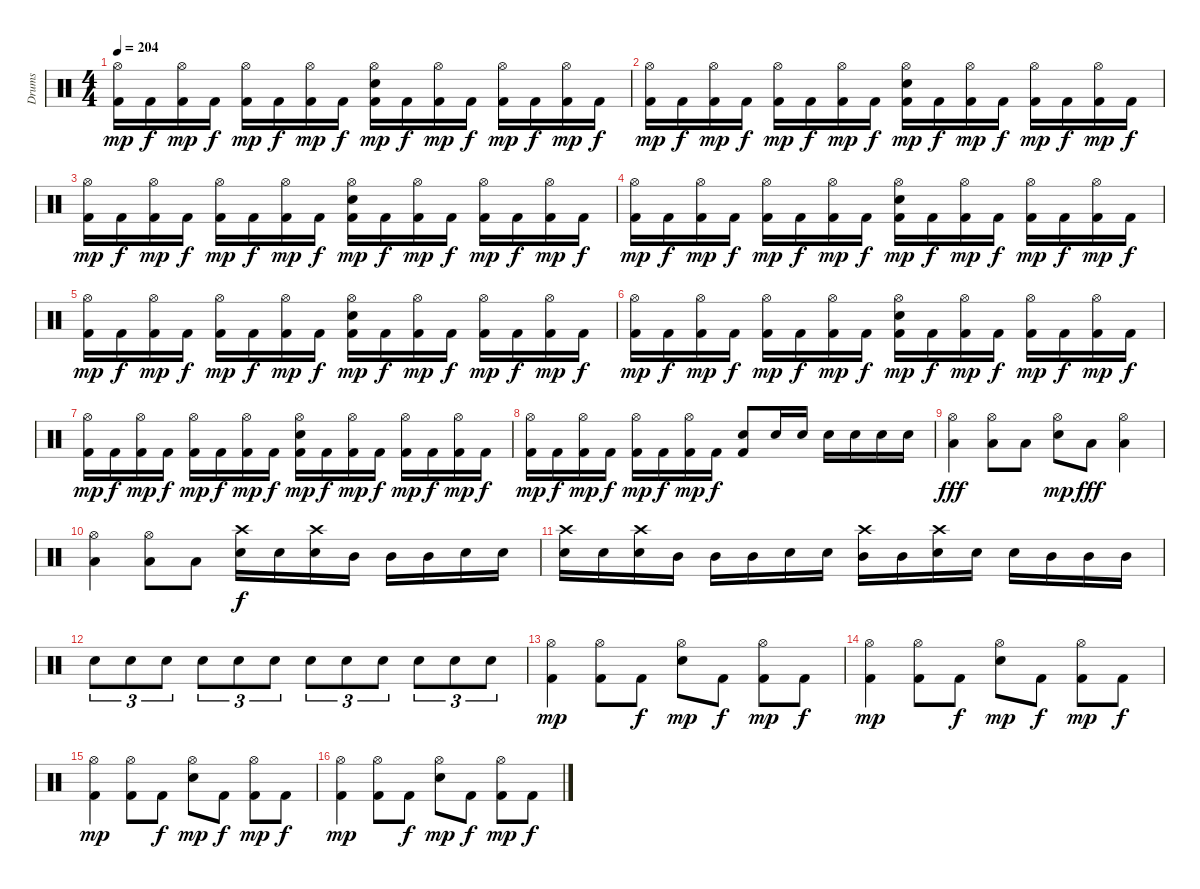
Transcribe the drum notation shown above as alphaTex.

\track ("Drums" "Drums") {instrument percussion}
\staff {score}
\articulation defaults
\ts (4 4)
\tempo 204
\clef neutral
\ks c
("Hi-Hat (open)" "Kick (hit) 2").16{dy mp} "Kick (hit) 2".16{dy f} ("Hi-Hat (open)" "Kick (hit) 2").16{dy mp} "Kick (hit) 2".16{dy f} ("Hi-Hat (open)" "Kick (hit) 2").16{dy mp} "Kick (hit) 2".16{dy f} ("Hi-Hat (open)" "Kick (hit) 2").16{dy mp} "Kick (hit) 2".16{dy f} ("Hi-Hat (open)" "Electric Snare (hit)" "Kick (hit) 2").16{dy mp} "Kick (hit) 2".16{dy f} ("Hi-Hat (open)" "Kick (hit) 2").16{dy mp} "Kick (hit) 2".16{dy f} ("Hi-Hat (open)" "Kick (hit) 2").16{dy mp} "Kick (hit) 2".16{dy f} ("Hi-Hat (open)" "Kick (hit) 2").16{dy mp} "Kick (hit) 2".16{dy f} |
("Hi-Hat (open)" "Kick (hit) 2").16{dy mp} "Kick (hit) 2".16{dy f} ("Hi-Hat (open)" "Kick (hit) 2").16{dy mp} "Kick (hit) 2".16{dy f} ("Hi-Hat (open)" "Kick (hit) 2").16{dy mp} "Kick (hit) 2".16{dy f} ("Hi-Hat (open)" "Kick (hit) 2").16{dy mp} "Kick (hit) 2".16{dy f} ("Hi-Hat (open)" "Electric Snare (hit)" "Kick (hit) 2").16{dy mp} "Kick (hit) 2".16{dy f} ("Hi-Hat (open)" "Kick (hit) 2").16{dy mp} "Kick (hit) 2".16{dy f} ("Hi-Hat (open)" "Kick (hit) 2").16{dy mp} "Kick (hit) 2".16{dy f} ("Hi-Hat (open)" "Kick (hit) 2").16{dy mp} "Kick (hit) 2".16{dy f} |
("Hi-Hat (open)" "Kick (hit) 2").16{dy mp} "Kick (hit) 2".16{dy f} ("Hi-Hat (open)" "Kick (hit) 2").16{dy mp} "Kick (hit) 2".16{dy f} ("Hi-Hat (open)" "Kick (hit) 2").16{dy mp} "Kick (hit) 2".16{dy f} ("Hi-Hat (open)" "Kick (hit) 2").16{dy mp} "Kick (hit) 2".16{dy f} ("Hi-Hat (open)" "Electric Snare (hit)" "Kick (hit) 2").16{dy mp} "Kick (hit) 2".16{dy f} ("Hi-Hat (open)" "Kick (hit) 2").16{dy mp} "Kick (hit) 2".16{dy f} ("Hi-Hat (open)" "Kick (hit) 2").16{dy mp} "Kick (hit) 2".16{dy f} ("Hi-Hat (open)" "Kick (hit) 2").16{dy mp} "Kick (hit) 2".16{dy f} |
("Hi-Hat (open)" "Kick (hit) 2").16{dy mp} "Kick (hit) 2".16{dy f} ("Hi-Hat (open)" "Kick (hit) 2").16{dy mp} "Kick (hit) 2".16{dy f} ("Hi-Hat (open)" "Kick (hit) 2").16{dy mp} "Kick (hit) 2".16{dy f} ("Hi-Hat (open)" "Kick (hit) 2").16{dy mp} "Kick (hit) 2".16{dy f} ("Hi-Hat (open)" "Electric Snare (hit)" "Kick (hit) 2").16{dy mp} "Kick (hit) 2".16{dy f} ("Hi-Hat (open)" "Kick (hit) 2").16{dy mp} "Kick (hit) 2".16{dy f} ("Hi-Hat (open)" "Kick (hit) 2").16{dy mp} "Kick (hit) 2".16{dy f} ("Hi-Hat (open)" "Kick (hit) 2").16{dy mp} "Kick (hit) 2".16{dy f} |
("Hi-Hat (open)" "Kick (hit) 2").16{dy mp} "Kick (hit) 2".16{dy f} ("Hi-Hat (open)" "Kick (hit) 2").16{dy mp} "Kick (hit) 2".16{dy f} ("Hi-Hat (open)" "Kick (hit) 2").16{dy mp} "Kick (hit) 2".16{dy f} ("Hi-Hat (open)" "Kick (hit) 2").16{dy mp} "Kick (hit) 2".16{dy f} ("Hi-Hat (open)" "Electric Snare (hit)" "Kick (hit) 2").16{dy mp} "Kick (hit) 2".16{dy f} ("Hi-Hat (open)" "Kick (hit) 2").16{dy mp} "Kick (hit) 2".16{dy f} ("Hi-Hat (open)" "Kick (hit) 2").16{dy mp} "Kick (hit) 2".16{dy f} ("Hi-Hat (open)" "Kick (hit) 2").16{dy mp} "Kick (hit) 2".16{dy f} |
("Hi-Hat (open)" "Kick (hit) 2").16{dy mp} "Kick (hit) 2".16{dy f} ("Hi-Hat (open)" "Kick (hit) 2").16{dy mp} "Kick (hit) 2".16{dy f} ("Hi-Hat (open)" "Kick (hit) 2").16{dy mp} "Kick (hit) 2".16{dy f} ("Hi-Hat (open)" "Kick (hit) 2").16{dy mp} "Kick (hit) 2".16{dy f} ("Hi-Hat (open)" "Electric Snare (hit)" "Kick (hit) 2").16{dy mp} "Kick (hit) 2".16{dy f} ("Hi-Hat (open)" "Kick (hit) 2").16{dy mp} "Kick (hit) 2".16{dy f} ("Hi-Hat (open)" "Kick (hit) 2").16{dy mp} "Kick (hit) 2".16{dy f} ("Hi-Hat (open)" "Kick (hit) 2").16{dy mp} "Kick (hit) 2".16{dy f} |
("Hi-Hat (open)" "Kick (hit) 2").16{dy mp} "Kick (hit) 2".16{dy f} ("Hi-Hat (open)" "Kick (hit) 2").16{dy mp} "Kick (hit) 2".16{dy f} ("Hi-Hat (open)" "Kick (hit) 2").16{dy mp} "Kick (hit) 2".16{dy f} ("Hi-Hat (open)" "Kick (hit) 2").16{dy mp} "Kick (hit) 2".16{dy f} ("Hi-Hat (open)" "Electric Snare (hit)" "Kick (hit) 2").16{dy mp} "Kick (hit) 2".16{dy f} ("Hi-Hat (open)" "Kick (hit) 2").16{dy mp} "Kick (hit) 2".16{dy f} ("Hi-Hat (open)" "Kick (hit) 2").16{dy mp} "Kick (hit) 2".16{dy f} ("Hi-Hat (open)" "Kick (hit) 2").16{dy mp} "Kick (hit) 2".16{dy f} |
("Hi-Hat (open)" "Kick (hit) 2").16{dy mp} "Kick (hit) 2".16{dy f} ("Hi-Hat (open)" "Kick (hit) 2").16{dy mp} "Kick (hit) 2".16{dy f} ("Hi-Hat (open)" "Kick (hit) 2").16{dy mp} "Kick (hit) 2".16{dy f} ("Hi-Hat (open)" "Kick (hit) 2").16{dy mp} "Kick (hit) 2".16{dy f} ("Electric Snare (hit)" "Kick (hit) 2").8 "Electric Snare (hit)".16 "Electric Snare (hit)".16 "Electric Snare (hit)".16 "Electric Snare (hit)".16 "Electric Snare (hit)".16 "Electric Snare (hit)".16 |
("Hi-Hat (open)" "Low Floor Tom (hit)").4{dy fff} ("Hi-Hat (open)" "Low Floor Tom (hit)").8 "Low Floor Tom (hit)".8 ("Hi-Hat (open)" "Electric Snare (hit)").8{dy mp} "Low Floor Tom (hit)".8{dy fff} ("Hi-Hat (open)" "Low Floor Tom (hit)").4 |
("Hi-Hat (open)" "Low Floor Tom (hit)").4 ("Hi-Hat (open)" "Low Floor Tom (hit)").8 "Low Floor Tom (hit)".8 ("Crash high (hit)" "Electric Snare (hit)").16{dy f} "Electric Snare (hit)".16 ("Crash high (hit)" "Electric Snare (hit)").16 "Mid Tom (hit)".16 "Mid Tom (hit)".16 "Mid Tom (hit)".16 "Electric Snare (hit)".16 "Electric Snare (hit)".16 |
("Crash high (hit)" "Electric Snare (hit)").16 "Electric Snare (hit)".16 ("Crash high (hit)" "Electric Snare (hit)").16 "Mid Tom (hit)".16 "Mid Tom (hit)".16 "Mid Tom (hit)".16 "Electric Snare (hit)".16 "Electric Snare (hit)".16 ("Crash high (hit)" "Mid Tom (hit)").16 "Mid Tom (hit)".16 ("Crash high (hit)" "Electric Snare (hit)").16 "Electric Snare (hit)".16 "Electric Snare (hit)".16 "Mid Tom (hit)".16 "Mid Tom (hit)".16 "Mid Tom (hit)".16 |
"Electric Snare (hit)".8{tu (3 2)} "Electric Snare (hit)".8{tu (3 2)} "Electric Snare (hit)".8{tu (3 2)} "Electric Snare (hit)".8{tu (3 2)} "Electric Snare (hit)".8{tu (3 2)} "Electric Snare (hit)".8{tu (3 2)} "Electric Snare (hit)".8{tu (3 2)} "Electric Snare (hit)".8{tu (3 2)} "Electric Snare (hit)".8{tu (3 2)} "Electric Snare (hit)".8{tu (3 2)} "Electric Snare (hit)".8{tu (3 2)} "Electric Snare (hit)".8{tu (3 2)} |
("Hi-Hat (open)" "Kick (hit) 2").4{dy mp} ("Hi-Hat (open)" "Kick (hit) 2").8 "Kick (hit) 2".8{dy f} ("Hi-Hat (open)" "Electric Snare (hit)").8{dy mp} "Kick (hit) 2".8{dy f} ("Hi-Hat (open)" "Kick (hit) 2").8{dy mp} "Kick (hit) 2".8{dy f} |
("Hi-Hat (open)" "Kick (hit) 2").4{dy mp} ("Hi-Hat (open)" "Kick (hit) 2").8 "Kick (hit) 2".8{dy f} ("Hi-Hat (open)" "Electric Snare (hit)").8{dy mp} "Kick (hit) 2".8{dy f} ("Hi-Hat (open)" "Kick (hit) 2").8{dy mp} "Kick (hit) 2".8{dy f} |
("Hi-Hat (open)" "Kick (hit) 2").4{dy mp} ("Hi-Hat (open)" "Kick (hit) 2").8 "Kick (hit) 2".8{dy f} ("Hi-Hat (open)" "Electric Snare (hit)").8{dy mp} "Kick (hit) 2".8{dy f} ("Hi-Hat (open)" "Kick (hit) 2").8{dy mp} "Kick (hit) 2".8{dy f} |
("Hi-Hat (open)" "Kick (hit) 2").4{dy mp} ("Hi-Hat (open)" "Kick (hit) 2").8 "Kick (hit) 2".8{dy f} ("Hi-Hat (open)" "Electric Snare (hit)").8{dy mp} "Kick (hit) 2".8{dy f} ("Hi-Hat (open)" "Kick (hit) 2").8{dy mp} "Kick (hit) 2".8{dy f}
